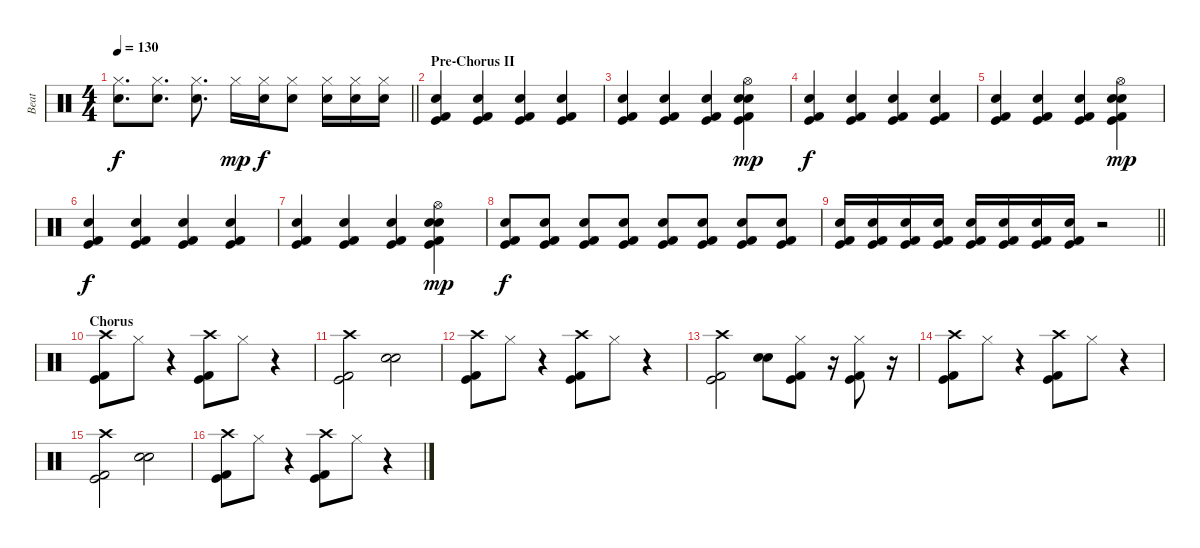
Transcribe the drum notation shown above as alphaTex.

\track ("Beat" "Beat") {instrument percussion}
\staff {score}
\articulation defaults
\ts (4 4)
\tempo 130
\clef neutral
\barLineRight lightlight
\ks c
("Hi-Hat (closed)" "Snare (hit) 2").8{d dy f} ("Hi-Hat (closed)" "Snare (hit) 2").8{d} ("Hi-Hat (closed)" "Snare (hit) 2").8{d} "Hi-Hat (closed)".16{dy mp} ("Hi-Hat (closed)" "Snare (hit) 2").16{dy f} ("Hi-Hat (closed)" "Snare (hit) 2").8 ("Hi-Hat (closed)" "Snare (hit) 2").16 ("Hi-Hat (closed)" "Snare (hit) 2").16 ("Hi-Hat (closed)" "Snare (hit) 2").16 |
\section ("" "Pre-Chorus II")
("Hand Clap (hit)" "Kick (hit)" "Kick (hit) 2").4 ("Hand Clap (hit)" "Kick (hit)" "Kick (hit) 2").4 ("Hand Clap (hit)" "Kick (hit)" "Kick (hit) 2").4 ("Hand Clap (hit)" "Kick (hit)" "Kick (hit) 2").4 |
("Hand Clap (hit)" "Kick (hit)" "Kick (hit) 2").4 ("Hand Clap (hit)" "Kick (hit)" "Kick (hit) 2").4 ("Hand Clap (hit)" "Kick (hit)" "Kick (hit) 2").4 ("Hi-Hat (open)" "Hand Clap (hit)" "Snare (hit) 2" "Kick (hit)" "Kick (hit) 2").4{dy mp} |
("Hand Clap (hit)" "Kick (hit)" "Kick (hit) 2").4{dy f} ("Hand Clap (hit)" "Kick (hit)" "Kick (hit) 2").4 ("Hand Clap (hit)" "Kick (hit)" "Kick (hit) 2").4 ("Hand Clap (hit)" "Kick (hit)" "Kick (hit) 2").4 |
("Hand Clap (hit)" "Kick (hit)" "Kick (hit) 2").4 ("Hand Clap (hit)" "Kick (hit)" "Kick (hit) 2").4 ("Hand Clap (hit)" "Kick (hit)" "Kick (hit) 2").4 ("Hi-Hat (open)" "Hand Clap (hit)" "Snare (hit) 2" "Kick (hit)" "Kick (hit) 2").4{dy mp} |
("Hand Clap (hit)" "Kick (hit)" "Kick (hit) 2").4{dy f} ("Hand Clap (hit)" "Kick (hit)" "Kick (hit) 2").4 ("Hand Clap (hit)" "Kick (hit)" "Kick (hit) 2").4 ("Hand Clap (hit)" "Kick (hit)" "Kick (hit) 2").4 |
("Hand Clap (hit)" "Kick (hit)" "Kick (hit) 2").4 ("Hand Clap (hit)" "Kick (hit)" "Kick (hit) 2").4 ("Hand Clap (hit)" "Kick (hit)" "Kick (hit) 2").4 ("Hi-Hat (open)" "Hand Clap (hit)" "Snare (hit) 2" "Kick (hit)" "Kick (hit) 2").4{dy mp} |
("Hand Clap (hit)" "Kick (hit)" "Kick (hit) 2").8{dy f} ("Hand Clap (hit)" "Kick (hit)" "Kick (hit) 2").8 ("Hand Clap (hit)" "Kick (hit)" "Kick (hit) 2").8 ("Hand Clap (hit)" "Kick (hit)" "Kick (hit) 2").8 ("Hand Clap (hit)" "Kick (hit)" "Kick (hit) 2").8 ("Hand Clap (hit)" "Kick (hit)" "Kick (hit) 2").8 ("Hand Clap (hit)" "Kick (hit)" "Kick (hit) 2").8 ("Hand Clap (hit)" "Kick (hit)" "Kick (hit) 2").8 |
\barLineRight lightlight
("Hand Clap (hit)" "Kick (hit)" "Kick (hit) 2").16 ("Hand Clap (hit)" "Kick (hit)" "Kick (hit) 2").16 ("Hand Clap (hit)" "Kick (hit)" "Kick (hit) 2").16 ("Hand Clap (hit)" "Kick (hit)" "Kick (hit) 2").16 ("Hand Clap (hit)" "Kick (hit)" "Kick (hit) 2").16 ("Hand Clap (hit)" "Kick (hit)" "Kick (hit) 2").16 ("Hand Clap (hit)" "Kick (hit)" "Kick (hit) 2").16 ("Hand Clap (hit)" "Kick (hit)" "Kick (hit) 2").16 r.2 |
\section ("" "Chorus")
("Crash high (hit)" "Kick (hit)" "Kick (hit) 2").8 "Hi-Hat (closed)".8 r.4 ("Crash high (hit)" "Kick (hit)" "Kick (hit) 2").8 "Hi-Hat (closed)".8 r.4 |
("Crash high (hit)" "Kick (hit)" "Kick (hit) 2").2 ("Hand Clap (hit)" "Snare (hit) 2").2 |
("Crash high (hit)" "Kick (hit)" "Kick (hit) 2").8 "Hi-Hat (closed)".8 r.4 ("Crash high (hit)" "Kick (hit)" "Kick (hit) 2").8 "Hi-Hat (closed)".8 r.4 |
("Crash high (hit)" "Kick (hit)" "Kick (hit) 2").2 ("Hand Clap (hit)" "Snare (hit) 2").8 ("Hi-Hat (closed)" "Kick (hit)" "Kick (hit) 2").8 r.16 ("Hi-Hat (closed)" "Kick (hit)" "Kick (hit) 2").8 r.16 |
("Crash high (hit)" "Kick (hit)" "Kick (hit) 2").8 "Hi-Hat (closed)".8 r.4 ("Crash high (hit)" "Kick (hit)" "Kick (hit) 2").8 "Hi-Hat (closed)".8 r.4 |
("Crash high (hit)" "Kick (hit)" "Kick (hit) 2").2 ("Hand Clap (hit)" "Snare (hit) 2").2 |
("Crash high (hit)" "Kick (hit)" "Kick (hit) 2").8 "Hi-Hat (closed)".8 r.4 ("Crash high (hit)" "Kick (hit)" "Kick (hit) 2").8 "Hi-Hat (closed)".8 r.4
